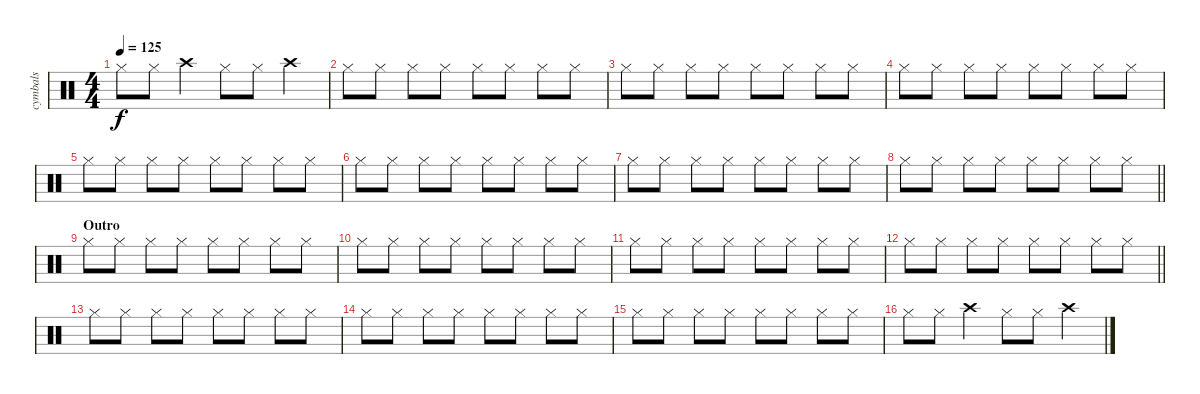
\track ("cymbals" "cymbals") {instrument percussion}
\staff {score}
\articulation defaults
\ts (4 4)
\tempo 125
\clef neutral
\ks c "Hi-Hat (closed)".8{dy f} "Hi-Hat (closed)".8 "Crash high (hit)".4 "Hi-Hat (closed)".8 "Hi-Hat (closed)".8 "Crash high (hit)".4
|
"Hi-Hat (closed)".8 "Hi-Hat (closed)".8 "Hi-Hat (closed)".8 "Hi-Hat (closed)".8 "Hi-Hat (closed)".8 "Hi-Hat (closed)".8 "Hi-Hat (closed)".8 "Hi-Hat (closed)".8 |
"Hi-Hat (closed)".8 "Hi-Hat (closed)".8 "Hi-Hat (closed)".8 "Hi-Hat (closed)".8 "Hi-Hat (closed)".8 "Hi-Hat (closed)".8 "Hi-Hat (closed)".8 "Hi-Hat (closed)".8 |
"Hi-Hat (closed)".8 "Hi-Hat (closed)".8 "Hi-Hat (closed)".8 "Hi-Hat (closed)".8 "Hi-Hat (closed)".8 "Hi-Hat (closed)".8 "Hi-Hat (closed)".8 "Hi-Hat (closed)".8 |
"Hi-Hat (closed)".8 "Hi-Hat (closed)".8 "Hi-Hat (closed)".8 "Hi-Hat (closed)".8 "Hi-Hat (closed)".8 "Hi-Hat (closed)".8 "Hi-Hat (closed)".8 "Hi-Hat (closed)".8 |
"Hi-Hat (closed)".8 "Hi-Hat (closed)".8 "Hi-Hat (closed)".8 "Hi-Hat (closed)".8 "Hi-Hat (closed)".8 "Hi-Hat (closed)".8 "Hi-Hat (closed)".8 "Hi-Hat (closed)".8 |
"Hi-Hat (closed)".8 "Hi-Hat (closed)".8 "Hi-Hat (closed)".8 "Hi-Hat (closed)".8 "Hi-Hat (closed)".8 "Hi-Hat (closed)".8 "Hi-Hat (closed)".8 "Hi-Hat (closed)".8 |
\barLineRight lightlight "Hi-Hat (closed)".8 "Hi-Hat (closed)".8 "Hi-Hat (closed)".8 "Hi-Hat (closed)".8 "Hi-Hat (closed)".8 "Hi-Hat (closed)".8 "Hi-Hat (closed)".8 "Hi-Hat (closed)".8
|
\section ("" "Outro")
"Hi-Hat (closed)".8 "Hi-Hat (closed)".8 "Hi-Hat (closed)".8 "Hi-Hat (closed)".8 "Hi-Hat (closed)".8 "Hi-Hat (closed)".8 "Hi-Hat (closed)".8 "Hi-Hat (closed)".8 |
"Hi-Hat (closed)".8 "Hi-Hat (closed)".8 "Hi-Hat (closed)".8 "Hi-Hat (closed)".8 "Hi-Hat (closed)".8 "Hi-Hat (closed)".8 "Hi-Hat (closed)".8 "Hi-Hat (closed)".8 |
"Hi-Hat (closed)".8 "Hi-Hat (closed)".8 "Hi-Hat (closed)".8 "Hi-Hat (closed)".8 "Hi-Hat (closed)".8 "Hi-Hat (closed)".8 "Hi-Hat (closed)".8 "Hi-Hat (closed)".8 |
\barLineRight lightlight "Hi-Hat (closed)".8 "Hi-Hat (closed)".8 "Hi-Hat (closed)".8 "Hi-Hat (closed)".8 "Hi-Hat (closed)".8 "Hi-Hat (closed)".8 "Hi-Hat (closed)".8 "Hi-Hat (closed)".8
|
"Hi-Hat (closed)".8 "Hi-Hat (closed)".8 "Hi-Hat (closed)".8 "Hi-Hat (closed)".8 "Hi-Hat (closed)".8 "Hi-Hat (closed)".8 "Hi-Hat (closed)".8 "Hi-Hat (closed)".8 |
"Hi-Hat (closed)".8 "Hi-Hat (closed)".8 "Hi-Hat (closed)".8 "Hi-Hat (closed)".8 "Hi-Hat (closed)".8 "Hi-Hat (closed)".8 "Hi-Hat (closed)".8 "Hi-Hat (closed)".8 |
"Hi-Hat (closed)".8 "Hi-Hat (closed)".8 "Hi-Hat (closed)".8 "Hi-Hat (closed)".8 "Hi-Hat (closed)".8 "Hi-Hat (closed)".8 "Hi-Hat (closed)".8 "Hi-Hat (closed)".8 |
"Hi-Hat (closed)".8 "Hi-Hat (closed)".8 "Crash high (hit)".4 "Hi-Hat (closed)".8 "Hi-Hat (closed)".8 "Crash high (hit)".4
